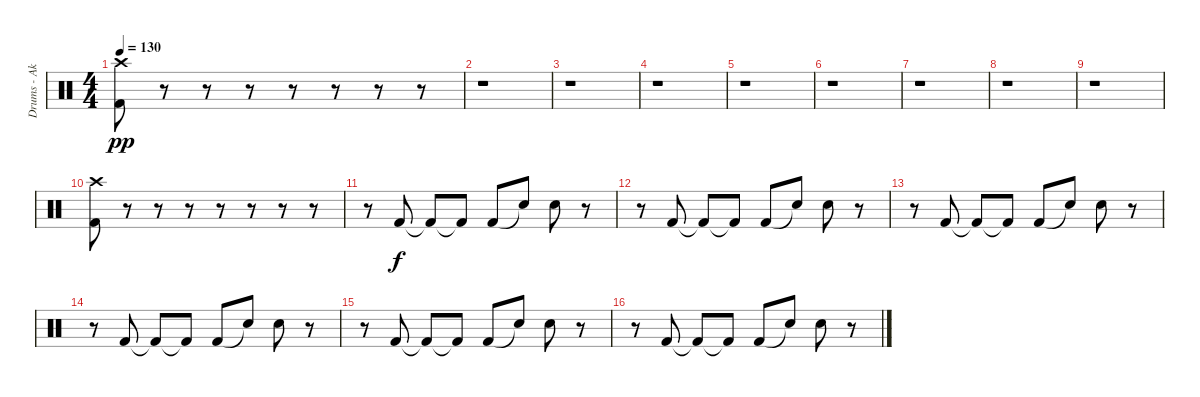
\track ("Drums - Aki Hakala/Janne" "Drums - Ak") {instrument percussion}
\staff {score}
\articulation defaults
\ts (4 4)
\tempo 130
\clef neutral
\ks c
("Crash high (hit)" "Kick (hit) 2").8{dy pp} r.8 r.8 r.8 r.8 r.8 r.8 r.8 |
r.1 |
r.1 |
r.1 |
r.1 |
r.1 |
r.1 |
r.1 |
r.1 |
("Crash high (hit)" "Kick (hit) 2").8 r.8 r.8 r.8 r.8 r.8 r.8 r.8 |
r.8 "Kick (hit) 2".8{dy f} "Kick (hit) 2"{t}.8 "Kick (hit) 2"{t}.8 "Kick (hit) 2".8 "Snare (hit)"{t}.8 "Electric Snare (hit)".8 r.8 |
r.8 "Kick (hit) 2".8 "Kick (hit) 2"{t}.8 "Kick (hit) 2"{t}.8 "Kick (hit) 2".8 "Snare (hit)"{t}.8 "Electric Snare (hit)".8 r.8 |
r.8 "Kick (hit) 2".8 "Kick (hit) 2"{t}.8 "Kick (hit) 2"{t}.8 "Kick (hit) 2".8 "Snare (hit)"{t}.8 "Electric Snare (hit)".8 r.8 |
r.8 "Kick (hit) 2".8 "Kick (hit) 2"{t}.8 "Kick (hit) 2"{t}.8 "Kick (hit) 2".8 "Snare (hit)"{t}.8 "Electric Snare (hit)".8 r.8 |
r.8 "Kick (hit) 2".8 "Kick (hit) 2"{t}.8 "Kick (hit) 2"{t}.8 "Kick (hit) 2".8 "Snare (hit)"{t}.8 "Electric Snare (hit)".8 r.8 |
r.8 "Kick (hit) 2".8 "Kick (hit) 2"{t}.8 "Kick (hit) 2"{t}.8 "Kick (hit) 2".8 "Snare (hit)"{t}.8 "Electric Snare (hit)".8 r.8
